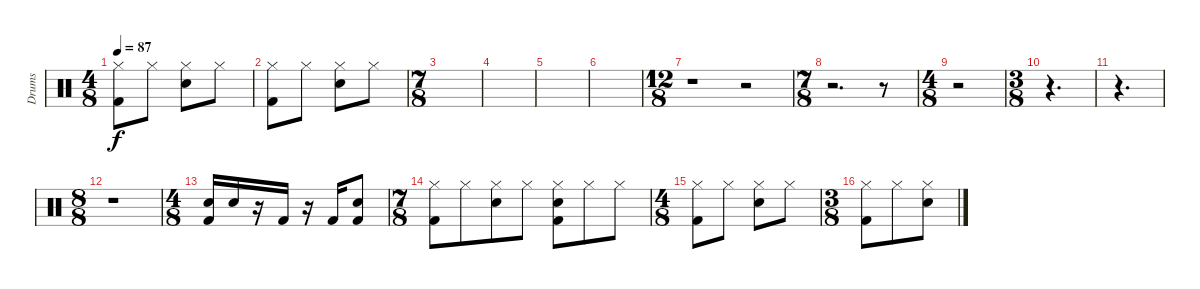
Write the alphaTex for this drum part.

\track ("Drums" "Drums") {instrument percussion}
\staff {score}
\articulation defaults
\ts (4 8)
\tempo 87
\clef neutral
\ks c
("Hi-Hat (closed)" "Kick (hit) 2").8{dy f} "Hi-Hat (closed)".8 ("Hi-Hat (closed)" "Snare (hit) 2").8 "Hi-Hat (closed)".8 |
("Hi-Hat (closed)" "Kick (hit) 2").8 "Hi-Hat (closed)".8 ("Hi-Hat (closed)" "Snare (hit) 2").8 "Hi-Hat (closed)".8 |
\ts (7 8)
|
|
|
|
\ts (12 8)
r.1 r.2 |
\ts (7 8)
r.2{d} r.8 |
\ts (4 8)
r.2 |
\ts (3 8)
r.4{d} |
r.4{d} |
\ts (8 8)
r.1 |
\ts (4 8)
("Kick (hit) 2" "Snare (hit) 2").16 "Snare (hit) 2".16 r.16 "Kick (hit) 2".16 r.16 "Kick (hit) 2".16 ("Snare (hit) 2" "Kick (hit) 2").8 |
\ts (7 8)
("Hi-Hat (closed)" "Kick (hit) 2").8 "Hi-Hat (closed)".8 ("Hi-Hat (closed)" "Snare (hit) 2").8 "Hi-Hat (closed)".8 ("Hi-Hat (closed)" "Kick (hit) 2" "Snare (hit) 2").8 "Hi-Hat (closed)".8 "Hi-Hat (closed)".8 |
\ts (4 8)
("Hi-Hat (closed)" "Kick (hit) 2").8 "Hi-Hat (closed)".8 ("Hi-Hat (closed)" "Snare (hit) 2").8 "Hi-Hat (closed)".8 |
\ts (3 8)
("Hi-Hat (closed)" "Kick (hit) 2").8 "Hi-Hat (closed)".8 ("Hi-Hat (closed)" "Snare (hit) 2").8
